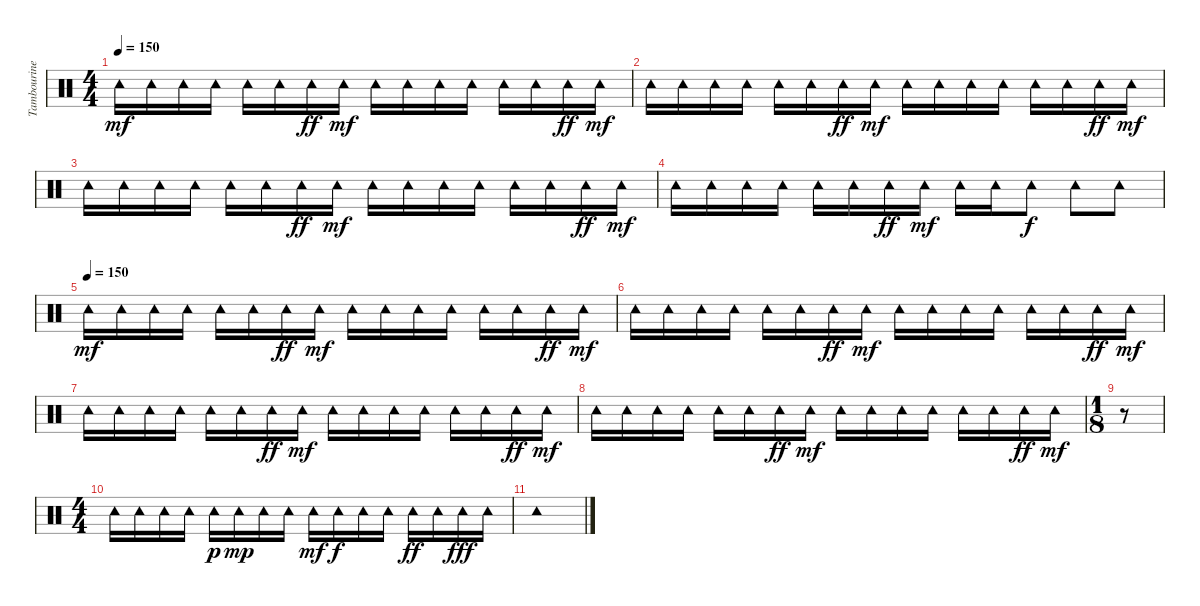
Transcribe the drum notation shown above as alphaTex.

\track ("Tambourine" "Tambourine") {instrument percussion}
\staff {score}
\articulation defaults
\ts (4 4)
\tempo 150
\clef neutral
\ks c "Tambourine (hit)".16{dy mf} "Tambourine (hit)".16 "Tambourine (hit)".16 "Tambourine (hit)".16 "Tambourine (hit)".16 "Tambourine (hit)".16 "Tambourine (hit)".16{dy ff} "Tambourine (hit)".16{dy mf} "Tambourine (hit)".16 "Tambourine (hit)".16 "Tambourine (hit)".16 "Tambourine (hit)".16 "Tambourine (hit)".16 "Tambourine (hit)".16 "Tambourine (hit)".16{dy ff} "Tambourine (hit)".16{dy mf}
|
"Tambourine (hit)".16 "Tambourine (hit)".16 "Tambourine (hit)".16 "Tambourine (hit)".16 "Tambourine (hit)".16 "Tambourine (hit)".16 "Tambourine (hit)".16{dy ff} "Tambourine (hit)".16{dy mf} "Tambourine (hit)".16 "Tambourine (hit)".16 "Tambourine (hit)".16 "Tambourine (hit)".16 "Tambourine (hit)".16 "Tambourine (hit)".16 "Tambourine (hit)".16{dy ff} "Tambourine (hit)".16{dy mf} |
"Tambourine (hit)".16 "Tambourine (hit)".16 "Tambourine (hit)".16 "Tambourine (hit)".16 "Tambourine (hit)".16 "Tambourine (hit)".16 "Tambourine (hit)".16{dy ff} "Tambourine (hit)".16{dy mf} "Tambourine (hit)".16 "Tambourine (hit)".16 "Tambourine (hit)".16 "Tambourine (hit)".16 "Tambourine (hit)".16 "Tambourine (hit)".16 "Tambourine (hit)".16{dy ff} "Tambourine (hit)".16{dy mf} |
"Tambourine (hit)".16 "Tambourine (hit)".16 "Tambourine (hit)".16 "Tambourine (hit)".16 "Tambourine (hit)".16 "Tambourine (hit)".16 "Tambourine (hit)".16{dy ff} "Tambourine (hit)".16{dy mf} "Tambourine (hit)".16 "Tambourine (hit)".16 "Tambourine (hit)".8{dy f} "Tambourine (hit)".8 "Tambourine (hit)".8 |
\tempo (150)
"Tambourine (hit)".16{dy mf} "Tambourine (hit)".16 "Tambourine (hit)".16 "Tambourine (hit)".16 "Tambourine (hit)".16 "Tambourine (hit)".16 "Tambourine (hit)".16{dy ff} "Tambourine (hit)".16{dy mf} "Tambourine (hit)".16 "Tambourine (hit)".16 "Tambourine (hit)".16 "Tambourine (hit)".16 "Tambourine (hit)".16 "Tambourine (hit)".16 "Tambourine (hit)".16{dy ff} "Tambourine (hit)".16{dy mf} |
"Tambourine (hit)".16 "Tambourine (hit)".16 "Tambourine (hit)".16 "Tambourine (hit)".16 "Tambourine (hit)".16 "Tambourine (hit)".16 "Tambourine (hit)".16{dy ff} "Tambourine (hit)".16{dy mf} "Tambourine (hit)".16 "Tambourine (hit)".16 "Tambourine (hit)".16 "Tambourine (hit)".16 "Tambourine (hit)".16 "Tambourine (hit)".16 "Tambourine (hit)".16{dy ff} "Tambourine (hit)".16{dy mf} |
"Tambourine (hit)".16 "Tambourine (hit)".16 "Tambourine (hit)".16 "Tambourine (hit)".16 "Tambourine (hit)".16 "Tambourine (hit)".16 "Tambourine (hit)".16{dy ff} "Tambourine (hit)".16{dy mf} "Tambourine (hit)".16 "Tambourine (hit)".16 "Tambourine (hit)".16 "Tambourine (hit)".16 "Tambourine (hit)".16 "Tambourine (hit)".16 "Tambourine (hit)".16{dy ff} "Tambourine (hit)".16{dy mf} |
"Tambourine (hit)".16 "Tambourine (hit)".16 "Tambourine (hit)".16 "Tambourine (hit)".16 "Tambourine (hit)".16 "Tambourine (hit)".16 "Tambourine (hit)".16{dy ff} "Tambourine (hit)".16{dy mf} "Tambourine (hit)".16 "Tambourine (hit)".16 "Tambourine (hit)".16 "Tambourine (hit)".16 "Tambourine (hit)".16 "Tambourine (hit)".16 "Tambourine (hit)".16{dy ff} "Tambourine (hit)".16{dy mf} |
\ts (1 8)
r.8 |
\ts (4 4)
"Tambourine (hit)".16 "Tambourine (hit)".16 "Tambourine (hit)".16 "Tambourine (hit)".16 "Tambourine (hit)".16{dy p} "Tambourine (hit)".16{dy mp} "Tambourine (hit)".16 "Tambourine (hit)".16 "Tambourine (hit)".16{dy mf} "Tambourine (hit)".16{dy f} "Tambourine (hit)".16 "Tambourine (hit)".16 "Tambourine (hit)".16{dy ff} "Tambourine (hit)".16 "Tambourine (hit)".16{dy fff} "Tambourine (hit)".16 |
"Tambourine (hit)".1
